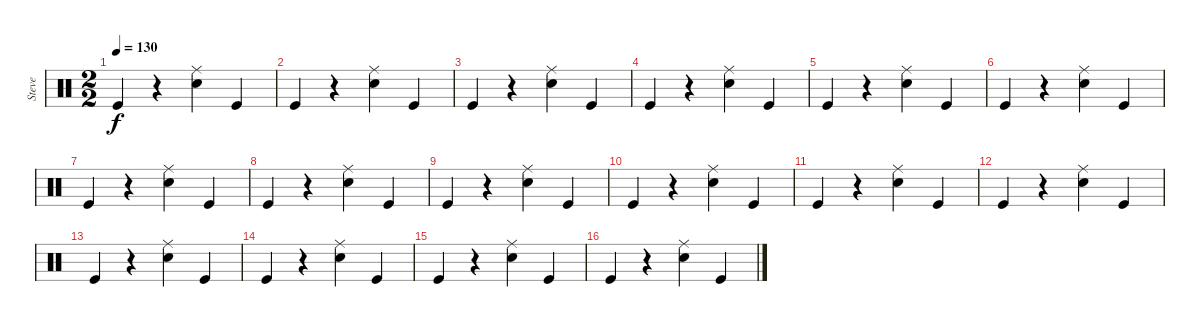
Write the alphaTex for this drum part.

\track ("Steve" "Steve") {instrument percussion}
\staff {score}
\articulation defaults
\ts (2 2)
\tempo 130
\clef neutral
\ks c "Kick (hit)".4{dy f}
r.4 ("Snare (hit) 2" "Ride (middle)").4 "Kick (hit)".4 |
"Kick (hit)".4 r.4 ("Snare (hit) 2" "Ride (middle)").4 "Kick (hit)".4 |
"Kick (hit)".4 r.4 ("Snare (hit) 2" "Ride (middle)").4 "Kick (hit)".4 |
"Kick (hit)".4 r.4 ("Snare (hit) 2" "Ride (middle)").4 "Kick (hit)".4 |
"Kick (hit)".4 r.4 ("Snare (hit) 2" "Ride (middle)").4 "Kick (hit)".4 |
"Kick (hit)".4 r.4 ("Snare (hit) 2" "Ride (middle)").4 "Kick (hit)".4 |
"Kick (hit)".4 r.4 ("Snare (hit) 2" "Ride (middle)").4 "Kick (hit)".4 |
"Kick (hit)".4 r.4 ("Snare (hit) 2" "Ride (middle)").4 "Kick (hit)".4 |
"Kick (hit)".4 r.4 ("Snare (hit) 2" "Ride (middle)").4 "Kick (hit)".4 |
"Kick (hit)".4 r.4 ("Snare (hit) 2" "Ride (middle)").4 "Kick (hit)".4 |
"Kick (hit)".4 r.4 ("Snare (hit) 2" "Ride (middle)").4 "Kick (hit)".4 |
"Kick (hit)".4 r.4 ("Snare (hit) 2" "Ride (middle)").4 "Kick (hit)".4 |
"Kick (hit)".4 r.4 ("Snare (hit) 2" "Ride (middle)").4 "Kick (hit)".4 |
"Kick (hit)".4 r.4 ("Snare (hit) 2" "Ride (middle)").4 "Kick (hit)".4 |
"Kick (hit)".4 r.4 ("Snare (hit) 2" "Ride (middle)").4 "Kick (hit)".4 |
"Kick (hit)".4 r.4 ("Snare (hit) 2" "Ride (middle)").4 "Kick (hit)".4
